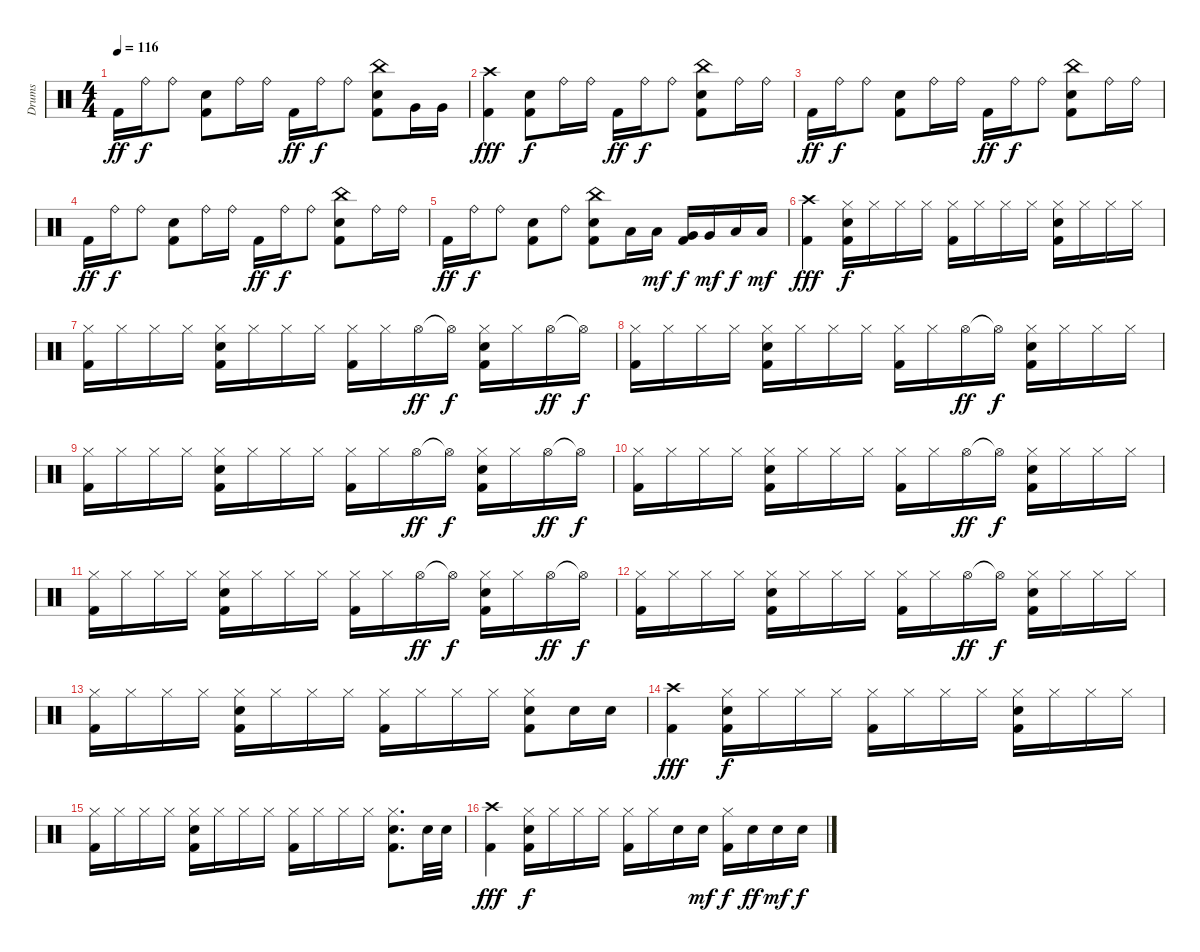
\track ("Drums" "Drums") {instrument percussion}
\staff {score}
\articulation defaults
\ts (4 4)
\tempo 116
\clef neutral
\ks c "Kick (hit) 2".16{dy ff} "Ride (bell)".16{dy f} "Ride (bell)".8
("Snare (hit) 2" "Kick (hit) 2").8 "Ride (bell)".16 "Ride (bell)".16 "Kick (hit) 2".16{dy ff} "Ride (bell)".16{dy f} "Ride (bell)".8 ("China (hit)" "Snare (hit) 2" "Kick (hit) 2").8 "Very Low Tom (hit)".16 "Very Low Tom (hit)".16 |
("Crash high (hit)" "Kick (hit) 2").4{dy fff} ("Snare (hit) 2" "Kick (hit) 2").8{dy f} "Ride (bell)".16 "Ride (bell)".16 "Kick (hit) 2".16{dy ff} "Ride (bell)".16{dy f} "Ride (bell)".8 ("China (hit)" "Snare (hit) 2" "Kick (hit) 2").8 "Ride (bell)".16 "Ride (bell)".16 |
"Kick (hit) 2".16{dy ff} "Ride (bell)".16{dy f} "Ride (bell)".8 ("Snare (hit) 2" "Kick (hit) 2").8 "Ride (bell)".16 "Ride (bell)".16 "Kick (hit) 2".16{dy ff} "Ride (bell)".16{dy f} "Ride (bell)".8 ("China (hit)" "Snare (hit) 2" "Kick (hit) 2").8 "Ride (bell)".16 "Ride (bell)".16 |
"Kick (hit) 2".16{dy ff} "Ride (bell)".16{dy f} "Ride (bell)".8 ("Snare (hit) 2" "Kick (hit) 2").8 "Ride (bell)".16 "Ride (bell)".16 "Kick (hit) 2".16{dy ff} "Ride (bell)".16{dy f} "Ride (bell)".8 ("China (hit)" "Snare (hit) 2" "Kick (hit) 2").8 "Ride (bell)".16 "Ride (bell)".16 |
"Kick (hit) 2".16{dy ff} "Ride (bell)".16{dy f} "Ride (bell)".8 ("Snare (hit) 2" "Kick (hit) 2").8 "Ride (bell)".8 ("China (hit)" "Snare (hit) 2" "Kick (hit) 2").8 "Low Tom (hit)".16 "Low Tom (hit)".16{dy mf} ("Very Low Tom (hit)" "Kick (hit) 2").16{dy f} "Very Low Tom (hit)".16{dy mf} "Low Floor Tom (hit)".16{dy f} "Low Floor Tom (hit)".16{dy mf} |
("Crash high (hit)" "Kick (hit) 2").4{dy fff} ("Hi-Hat (closed)" "Snare (hit) 2" "Kick (hit) 2").16{dy f} "Hi-Hat (closed)".16 "Hi-Hat (closed)".16 "Hi-Hat (closed)".16 ("Hi-Hat (closed)" "Kick (hit) 2").16 "Hi-Hat (closed)".16 "Hi-Hat (closed)".16 "Hi-Hat (closed)".16 ("Hi-Hat (closed)" "Snare (hit) 2" "Kick (hit) 2").16 "Hi-Hat (closed)".16 "Hi-Hat (closed)".16 "Hi-Hat (closed)".16 |
("Hi-Hat (closed)" "Kick (hit) 2").16 "Hi-Hat (closed)".16 "Hi-Hat (closed)".16 "Hi-Hat (closed)".16 ("Hi-Hat (closed)" "Snare (hit) 2" "Kick (hit) 2").16 "Hi-Hat (closed)".16 "Hi-Hat (closed)".16 "Hi-Hat (closed)".16 ("Hi-Hat (closed)" "Kick (hit) 2").16 "Hi-Hat (closed)".16 "Hi-Hat (open)".16{dy ff} "Hi-Hat (open)"{t}.16{dy f} ("Hi-Hat (closed)" "Snare (hit) 2" "Kick (hit) 2").16 "Hi-Hat (closed)".16 "Hi-Hat (open)".16{dy ff} "Hi-Hat (open)"{t}.16{dy f} |
("Hi-Hat (closed)" "Kick (hit) 2").16 "Hi-Hat (closed)".16 "Hi-Hat (closed)".16 "Hi-Hat (closed)".16 ("Hi-Hat (closed)" "Snare (hit) 2" "Kick (hit) 2").16 "Hi-Hat (closed)".16 "Hi-Hat (closed)".16 "Hi-Hat (closed)".16 ("Hi-Hat (closed)" "Kick (hit) 2").16 "Hi-Hat (closed)".16 "Hi-Hat (open)".16{dy ff} "Hi-Hat (open)"{t}.16{dy f} ("Hi-Hat (closed)" "Snare (hit) 2" "Kick (hit) 2").16 "Hi-Hat (closed)".16 "Hi-Hat (closed)".16 "Hi-Hat (closed)".16 |
("Hi-Hat (closed)" "Kick (hit) 2").16 "Hi-Hat (closed)".16 "Hi-Hat (closed)".16 "Hi-Hat (closed)".16 ("Hi-Hat (closed)" "Snare (hit) 2" "Kick (hit) 2").16 "Hi-Hat (closed)".16 "Hi-Hat (closed)".16 "Hi-Hat (closed)".16 ("Hi-Hat (closed)" "Kick (hit) 2").16 "Hi-Hat (closed)".16 "Hi-Hat (open)".16{dy ff} "Hi-Hat (open)"{t}.16{dy f} ("Hi-Hat (closed)" "Snare (hit) 2" "Kick (hit) 2").16 "Hi-Hat (closed)".16 "Hi-Hat (open)".16{dy ff} "Hi-Hat (open)"{t}.16{dy f} |
("Hi-Hat (closed)" "Kick (hit) 2").16 "Hi-Hat (closed)".16 "Hi-Hat (closed)".16 "Hi-Hat (closed)".16 ("Hi-Hat (closed)" "Snare (hit) 2" "Kick (hit) 2").16 "Hi-Hat (closed)".16 "Hi-Hat (closed)".16 "Hi-Hat (closed)".16 ("Hi-Hat (closed)" "Kick (hit) 2").16 "Hi-Hat (closed)".16 "Hi-Hat (open)".16{dy ff} "Hi-Hat (open)"{t}.16{dy f} ("Hi-Hat (closed)" "Snare (hit) 2" "Kick (hit) 2").16 "Hi-Hat (closed)".16 "Hi-Hat (closed)".16 "Hi-Hat (closed)".16 |
("Hi-Hat (closed)" "Kick (hit) 2").16 "Hi-Hat (closed)".16 "Hi-Hat (closed)".16 "Hi-Hat (closed)".16 ("Hi-Hat (closed)" "Snare (hit) 2" "Kick (hit) 2").16 "Hi-Hat (closed)".16 "Hi-Hat (closed)".16 "Hi-Hat (closed)".16 ("Hi-Hat (closed)" "Kick (hit) 2").16 "Hi-Hat (closed)".16 "Hi-Hat (open)".16{dy ff} "Hi-Hat (open)"{t}.16{dy f} ("Hi-Hat (closed)" "Snare (hit) 2" "Kick (hit) 2").16 "Hi-Hat (closed)".16 "Hi-Hat (open)".16{dy ff} "Hi-Hat (open)"{t}.16{dy f} |
("Hi-Hat (closed)" "Kick (hit) 2").16 "Hi-Hat (closed)".16 "Hi-Hat (closed)".16 "Hi-Hat (closed)".16 ("Hi-Hat (closed)" "Snare (hit) 2" "Kick (hit) 2").16 "Hi-Hat (closed)".16 "Hi-Hat (closed)".16 "Hi-Hat (closed)".16 ("Hi-Hat (closed)" "Kick (hit) 2").16 "Hi-Hat (closed)".16 "Hi-Hat (open)".16{dy ff} "Hi-Hat (open)"{t}.16{dy f} ("Hi-Hat (closed)" "Snare (hit) 2" "Kick (hit) 2").16 "Hi-Hat (closed)".16 "Hi-Hat (closed)".16 "Hi-Hat (closed)".16 |
("Hi-Hat (closed)" "Kick (hit) 2").16 "Hi-Hat (closed)".16 "Hi-Hat (closed)".16 "Hi-Hat (closed)".16 ("Hi-Hat (closed)" "Snare (hit) 2" "Kick (hit) 2").16 "Hi-Hat (closed)".16 "Hi-Hat (closed)".16 "Hi-Hat (closed)".16 ("Hi-Hat (closed)" "Kick (hit) 2").16 "Hi-Hat (closed)".16 "Hi-Hat (closed)".16 "Hi-Hat (closed)".16 ("Hi-Hat (closed)" "Snare (hit) 2" "Kick (hit) 2").8 "Snare (hit) 2".16 "Snare (hit) 2".16 |
("Crash high (hit)" "Kick (hit) 2").4{dy fff} ("Hi-Hat (closed)" "Snare (hit) 2" "Kick (hit) 2").16{dy f} "Hi-Hat (closed)".16 "Hi-Hat (closed)".16 "Hi-Hat (closed)".16 ("Hi-Hat (closed)" "Kick (hit) 2").16 "Hi-Hat (closed)".16 "Hi-Hat (closed)".16 "Hi-Hat (closed)".16 ("Hi-Hat (closed)" "Snare (hit) 2" "Kick (hit) 2").16 "Hi-Hat (closed)".16 "Hi-Hat (closed)".16 "Hi-Hat (closed)".16 |
("Hi-Hat (closed)" "Kick (hit) 2").16 "Hi-Hat (closed)".16 "Hi-Hat (closed)".16 "Hi-Hat (closed)".16 ("Hi-Hat (closed)" "Snare (hit) 2" "Kick (hit) 2").16 "Hi-Hat (closed)".16 "Hi-Hat (closed)".16 "Hi-Hat (closed)".16 ("Hi-Hat (closed)" "Kick (hit) 2").16 "Hi-Hat (closed)".16 "Hi-Hat (closed)".16 "Hi-Hat (closed)".16 ("Hi-Hat (closed)" "Snare (hit) 2" "Kick (hit) 2").8{d} "Snare (hit) 2".32 "Snare (hit) 2".32 |
("Crash high (hit)" "Kick (hit) 2").4{dy fff} ("Hi-Hat (closed)" "Snare (hit) 2" "Kick (hit) 2").16{dy f} "Hi-Hat (closed)".16 "Hi-Hat (closed)".16 "Hi-Hat (closed)".16 ("Hi-Hat (closed)" "Kick (hit) 2").16 "Hi-Hat (closed)".16 "Snare (hit) 2".16 "Snare (hit) 2".16{dy mf} ("Hi-Hat (closed)" "Kick (hit) 2").16{dy f} "Snare (hit) 2".16{dy ff} "Snare (hit) 2".16{dy mf} "Snare (hit) 2".16{dy f}
